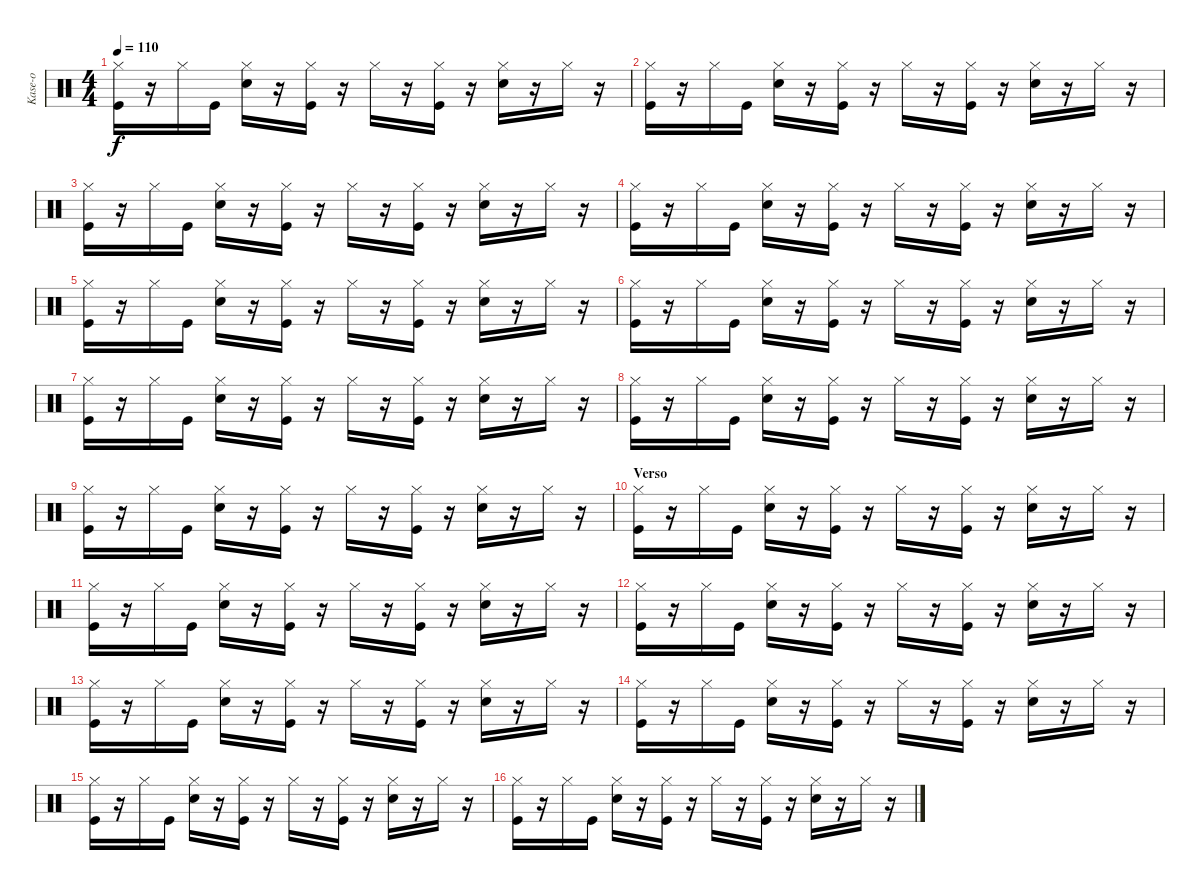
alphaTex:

\track ("Kase-o" "Kase-o") {instrument percussion}
\staff {score}
\articulation defaults
\ts (4 4)
\tempo 110
\clef neutral
\ks c
("Hi-Hat (closed)" "Kick (hit)").16{dy f} r.16 "Hi-Hat (closed)".16 "Kick (hit)".16 ("Hi-Hat (closed)" "Electric Snare (hit)").16 r.16 ("Hi-Hat (closed)" "Kick (hit)").16 r.16 "Hi-Hat (closed)".16 r.16 ("Hi-Hat (closed)" "Kick (hit)").16 r.16 ("Hi-Hat (closed)" "Electric Snare (hit)").16 r.16 "Hi-Hat (closed)".16 r.16 |
("Hi-Hat (closed)" "Kick (hit)").16 r.16 "Hi-Hat (closed)".16 "Kick (hit)".16 ("Hi-Hat (closed)" "Electric Snare (hit)").16 r.16 ("Hi-Hat (closed)" "Kick (hit)").16 r.16 "Hi-Hat (closed)".16 r.16 ("Hi-Hat (closed)" "Kick (hit)").16 r.16 ("Hi-Hat (closed)" "Electric Snare (hit)").16 r.16 "Hi-Hat (closed)".16 r.16 |
("Hi-Hat (closed)" "Kick (hit)").16 r.16 "Hi-Hat (closed)".16 "Kick (hit)".16 ("Hi-Hat (closed)" "Electric Snare (hit)").16 r.16 ("Hi-Hat (closed)" "Kick (hit)").16 r.16 "Hi-Hat (closed)".16 r.16 ("Hi-Hat (closed)" "Kick (hit)").16 r.16 ("Hi-Hat (closed)" "Electric Snare (hit)").16 r.16 "Hi-Hat (closed)".16 r.16 |
("Hi-Hat (closed)" "Kick (hit)").16 r.16 "Hi-Hat (closed)".16 "Kick (hit)".16 ("Hi-Hat (closed)" "Electric Snare (hit)").16 r.16 ("Hi-Hat (closed)" "Kick (hit)").16 r.16 "Hi-Hat (closed)".16 r.16 ("Hi-Hat (closed)" "Kick (hit)").16 r.16 ("Hi-Hat (closed)" "Electric Snare (hit)").16 r.16 "Hi-Hat (closed)".16 r.16 |
("Hi-Hat (closed)" "Kick (hit)").16 r.16 "Hi-Hat (closed)".16 "Kick (hit)".16 ("Hi-Hat (closed)" "Electric Snare (hit)").16 r.16 ("Hi-Hat (closed)" "Kick (hit)").16 r.16 "Hi-Hat (closed)".16 r.16 ("Hi-Hat (closed)" "Kick (hit)").16 r.16 ("Hi-Hat (closed)" "Electric Snare (hit)").16 r.16 "Hi-Hat (closed)".16 r.16 |
("Hi-Hat (closed)" "Kick (hit)").16 r.16 "Hi-Hat (closed)".16 "Kick (hit)".16 ("Hi-Hat (closed)" "Electric Snare (hit)").16 r.16 ("Hi-Hat (closed)" "Kick (hit)").16 r.16 "Hi-Hat (closed)".16 r.16 ("Hi-Hat (closed)" "Kick (hit)").16 r.16 ("Hi-Hat (closed)" "Electric Snare (hit)").16 r.16 "Hi-Hat (closed)".16 r.16 |
("Hi-Hat (closed)" "Kick (hit)").16 r.16 "Hi-Hat (closed)".16 "Kick (hit)".16 ("Hi-Hat (closed)" "Electric Snare (hit)").16 r.16 ("Hi-Hat (closed)" "Kick (hit)").16 r.16 "Hi-Hat (closed)".16 r.16 ("Hi-Hat (closed)" "Kick (hit)").16 r.16 ("Hi-Hat (closed)" "Electric Snare (hit)").16 r.16 "Hi-Hat (closed)".16 r.16 |
("Hi-Hat (closed)" "Kick (hit)").16 r.16 "Hi-Hat (closed)".16 "Kick (hit)".16 ("Hi-Hat (closed)" "Electric Snare (hit)").16 r.16 ("Hi-Hat (closed)" "Kick (hit)").16 r.16 "Hi-Hat (closed)".16 r.16 ("Hi-Hat (closed)" "Kick (hit)").16 r.16 ("Hi-Hat (closed)" "Electric Snare (hit)").16 r.16 "Hi-Hat (closed)".16 r.16 |
("Hi-Hat (closed)" "Kick (hit)").16 r.16 "Hi-Hat (closed)".16 "Kick (hit)".16 ("Hi-Hat (closed)" "Electric Snare (hit)").16 r.16 ("Hi-Hat (closed)" "Kick (hit)").16 r.16 "Hi-Hat (closed)".16 r.16 ("Hi-Hat (closed)" "Kick (hit)").16 r.16 ("Hi-Hat (closed)" "Electric Snare (hit)").16 r.16 "Hi-Hat (closed)".16 r.16 |
\section ("" "Verso")
("Hi-Hat (closed)" "Kick (hit)").16 r.16 "Hi-Hat (closed)".16 "Kick (hit)".16 ("Hi-Hat (closed)" "Electric Snare (hit)").16 r.16 ("Hi-Hat (closed)" "Kick (hit)").16 r.16 "Hi-Hat (closed)".16 r.16 ("Hi-Hat (closed)" "Kick (hit)").16 r.16 ("Hi-Hat (closed)" "Electric Snare (hit)").16 r.16 "Hi-Hat (closed)".16 r.16 |
("Hi-Hat (closed)" "Kick (hit)").16 r.16 "Hi-Hat (closed)".16 "Kick (hit)".16 ("Hi-Hat (closed)" "Electric Snare (hit)").16 r.16 ("Hi-Hat (closed)" "Kick (hit)").16 r.16 "Hi-Hat (closed)".16 r.16 ("Hi-Hat (closed)" "Kick (hit)").16 r.16 ("Hi-Hat (closed)" "Electric Snare (hit)").16 r.16 "Hi-Hat (closed)".16 r.16 |
("Hi-Hat (closed)" "Kick (hit)").16 r.16 "Hi-Hat (closed)".16 "Kick (hit)".16 ("Hi-Hat (closed)" "Electric Snare (hit)").16 r.16 ("Hi-Hat (closed)" "Kick (hit)").16 r.16 "Hi-Hat (closed)".16 r.16 ("Hi-Hat (closed)" "Kick (hit)").16 r.16 ("Hi-Hat (closed)" "Electric Snare (hit)").16 r.16 "Hi-Hat (closed)".16 r.16 |
("Hi-Hat (closed)" "Kick (hit)").16 r.16 "Hi-Hat (closed)".16 "Kick (hit)".16 ("Hi-Hat (closed)" "Electric Snare (hit)").16 r.16 ("Hi-Hat (closed)" "Kick (hit)").16 r.16 "Hi-Hat (closed)".16 r.16 ("Hi-Hat (closed)" "Kick (hit)").16 r.16 ("Hi-Hat (closed)" "Electric Snare (hit)").16 r.16 "Hi-Hat (closed)".16 r.16 |
("Hi-Hat (closed)" "Kick (hit)").16 r.16 "Hi-Hat (closed)".16 "Kick (hit)".16 ("Hi-Hat (closed)" "Electric Snare (hit)").16 r.16 ("Hi-Hat (closed)" "Kick (hit)").16 r.16 "Hi-Hat (closed)".16 r.16 ("Hi-Hat (closed)" "Kick (hit)").16 r.16 ("Hi-Hat (closed)" "Electric Snare (hit)").16 r.16 "Hi-Hat (closed)".16 r.16 |
("Hi-Hat (closed)" "Kick (hit)").16 r.16 "Hi-Hat (closed)".16 "Kick (hit)".16 ("Hi-Hat (closed)" "Electric Snare (hit)").16 r.16 ("Hi-Hat (closed)" "Kick (hit)").16 r.16 "Hi-Hat (closed)".16 r.16 ("Hi-Hat (closed)" "Kick (hit)").16 r.16 ("Hi-Hat (closed)" "Electric Snare (hit)").16 r.16 "Hi-Hat (closed)".16 r.16 |
("Hi-Hat (closed)" "Kick (hit)").16 r.16 "Hi-Hat (closed)".16 "Kick (hit)".16 ("Hi-Hat (closed)" "Electric Snare (hit)").16 r.16 ("Hi-Hat (closed)" "Kick (hit)").16 r.16 "Hi-Hat (closed)".16 r.16 ("Hi-Hat (closed)" "Kick (hit)").16 r.16 ("Hi-Hat (closed)" "Electric Snare (hit)").16 r.16 "Hi-Hat (closed)".16 r.16
